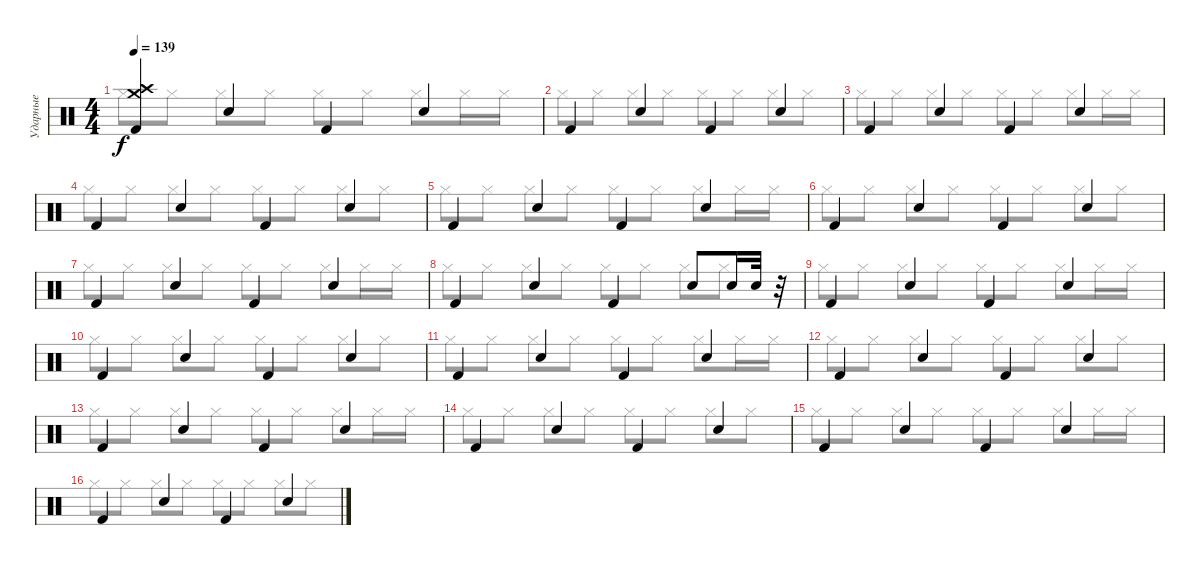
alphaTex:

\track ("Ударные" "Ударные") {instrument percussion}
\staff {score}
\articulation defaults
\voice
\ts (4 4)
\tempo 139
\clef neutral
\ks c
("Kick (hit) 2" "Crash high (hit)" "Crash medium (hit)").4{dy f} "Snare (hit) 2".4 "Kick (hit) 2".4 "Snare (hit) 2".4 |
"Kick (hit) 2".4 "Snare (hit) 2".4 "Kick (hit) 2".4 "Snare (hit) 2".4 |
"Kick (hit) 2".4 "Snare (hit) 2".4 "Kick (hit) 2".4 "Snare (hit) 2".4 |
"Kick (hit) 2".4 "Snare (hit) 2".4 "Kick (hit) 2".4 "Snare (hit) 2".4 |
"Kick (hit) 2".4 "Snare (hit) 2".4 "Kick (hit) 2".4 "Snare (hit) 2".4 |
"Kick (hit) 2".4 "Snare (hit) 2".4 "Kick (hit) 2".4 "Snare (hit) 2".4 |
"Kick (hit) 2".4 "Snare (hit) 2".4 "Kick (hit) 2".4 "Snare (hit) 2".4 |
"Kick (hit) 2".4 "Snare (hit) 2".4 "Kick (hit) 2".4 "Snare (hit) 2".8 "Snare (hit) 2".16 "Snare (hit) 2".32 r.32 |
"Kick (hit) 2".4 "Snare (hit) 2".4 "Kick (hit) 2".4 "Snare (hit) 2".4 |
"Kick (hit) 2".4 "Snare (hit) 2".4 "Kick (hit) 2".4 "Snare (hit) 2".4 |
"Kick (hit) 2".4 "Snare (hit) 2".4 "Kick (hit) 2".4 "Snare (hit) 2".4 |
"Kick (hit) 2".4 "Snare (hit) 2".4 "Kick (hit) 2".4 "Snare (hit) 2".4 |
"Kick (hit) 2".4 "Snare (hit) 2".4 "Kick (hit) 2".4 "Snare (hit) 2".4 |
"Kick (hit) 2".4 "Snare (hit) 2".4 "Kick (hit) 2".4 "Snare (hit) 2".4 |
"Kick (hit) 2".4 "Snare (hit) 2".4 "Kick (hit) 2".4 "Snare (hit) 2".4 |
"Kick (hit) 2".4 "Snare (hit) 2".4 "Kick (hit) 2".4 "Snare (hit) 2".4
\voice
\clef neutral
\ottava regular
\simile none
\ks c "Hi-Hat (closed)".8{dy f} "Hi-Hat (closed)".8 "Hi-Hat (closed)".8 "Hi-Hat (closed)".8 "Hi-Hat (closed)".8 "Hi-Hat (closed)".8 "Hi-Hat (closed)".8 "Hi-Hat (closed)".16 "Hi-Hat (closed)".16
|
"Hi-Hat (closed)".8 "Hi-Hat (closed)".8 "Hi-Hat (closed)".8 "Hi-Hat (closed)".8 "Hi-Hat (closed)".8 "Hi-Hat (closed)".8 "Hi-Hat (closed)".8 "Hi-Hat (closed)".8 |
"Hi-Hat (closed)".8 "Hi-Hat (closed)".8 "Hi-Hat (closed)".8 "Hi-Hat (closed)".8 "Hi-Hat (closed)".8 "Hi-Hat (closed)".8 "Hi-Hat (closed)".8 "Hi-Hat (closed)".16 "Hi-Hat (closed)".16 |
"Hi-Hat (closed)".8 "Hi-Hat (closed)".8 "Hi-Hat (closed)".8 "Hi-Hat (closed)".8 "Hi-Hat (closed)".8 "Hi-Hat (closed)".8 "Hi-Hat (closed)".8 "Hi-Hat (closed)".8 |
"Hi-Hat (closed)".8 "Hi-Hat (closed)".8 "Hi-Hat (closed)".8 "Hi-Hat (closed)".8 "Hi-Hat (closed)".8 "Hi-Hat (closed)".8 "Hi-Hat (closed)".8 "Hi-Hat (closed)".16 "Hi-Hat (closed)".16 |
"Hi-Hat (closed)".8 "Hi-Hat (closed)".8 "Hi-Hat (closed)".8 "Hi-Hat (closed)".8 "Hi-Hat (closed)".8 "Hi-Hat (closed)".8 "Hi-Hat (closed)".8 "Hi-Hat (closed)".8 |
"Hi-Hat (closed)".8 "Hi-Hat (closed)".8 "Hi-Hat (closed)".8 "Hi-Hat (closed)".8 "Hi-Hat (closed)".8 "Hi-Hat (closed)".8 "Hi-Hat (closed)".8 "Hi-Hat (closed)".16 "Hi-Hat (closed)".16 |
"Hi-Hat (closed)".8 "Hi-Hat (closed)".8 "Hi-Hat (closed)".8 "Hi-Hat (closed)".8 "Hi-Hat (closed)".8 "Hi-Hat (closed)".8 "Hi-Hat (closed)".8 "Hi-Hat (closed)".8 |
"Hi-Hat (closed)".8 "Hi-Hat (closed)".8 "Hi-Hat (closed)".8 "Hi-Hat (closed)".8 "Hi-Hat (closed)".8 "Hi-Hat (closed)".8 "Hi-Hat (closed)".8 "Hi-Hat (closed)".16 "Hi-Hat (closed)".16 |
"Hi-Hat (closed)".8 "Hi-Hat (closed)".8 "Hi-Hat (closed)".8 "Hi-Hat (closed)".8 "Hi-Hat (closed)".8 "Hi-Hat (closed)".8 "Hi-Hat (closed)".8 "Hi-Hat (closed)".8 |
"Hi-Hat (closed)".8 "Hi-Hat (closed)".8 "Hi-Hat (closed)".8 "Hi-Hat (closed)".8 "Hi-Hat (closed)".8 "Hi-Hat (closed)".8 "Hi-Hat (closed)".8 "Hi-Hat (closed)".16 "Hi-Hat (closed)".16 |
"Hi-Hat (closed)".8 "Hi-Hat (closed)".8 "Hi-Hat (closed)".8 "Hi-Hat (closed)".8 "Hi-Hat (closed)".8 "Hi-Hat (closed)".8 "Hi-Hat (closed)".8 "Hi-Hat (closed)".8 |
"Hi-Hat (closed)".8 "Hi-Hat (closed)".8 "Hi-Hat (closed)".8 "Hi-Hat (closed)".8 "Hi-Hat (closed)".8 "Hi-Hat (closed)".8 "Hi-Hat (closed)".8 "Hi-Hat (closed)".16 "Hi-Hat (closed)".16 |
"Hi-Hat (closed)".8 "Hi-Hat (closed)".8 "Hi-Hat (closed)".8 "Hi-Hat (closed)".8 "Hi-Hat (closed)".8 "Hi-Hat (closed)".8 "Hi-Hat (closed)".8 "Hi-Hat (closed)".8 |
"Hi-Hat (closed)".8 "Hi-Hat (closed)".8 "Hi-Hat (closed)".8 "Hi-Hat (closed)".8 "Hi-Hat (closed)".8 "Hi-Hat (closed)".8 "Hi-Hat (closed)".8 "Hi-Hat (closed)".16 "Hi-Hat (closed)".16 |
"Hi-Hat (closed)".8 "Hi-Hat (closed)".8 "Hi-Hat (closed)".8 "Hi-Hat (closed)".8 "Hi-Hat (closed)".8 "Hi-Hat (closed)".8 "Hi-Hat (closed)".8 "Hi-Hat (closed)".8
